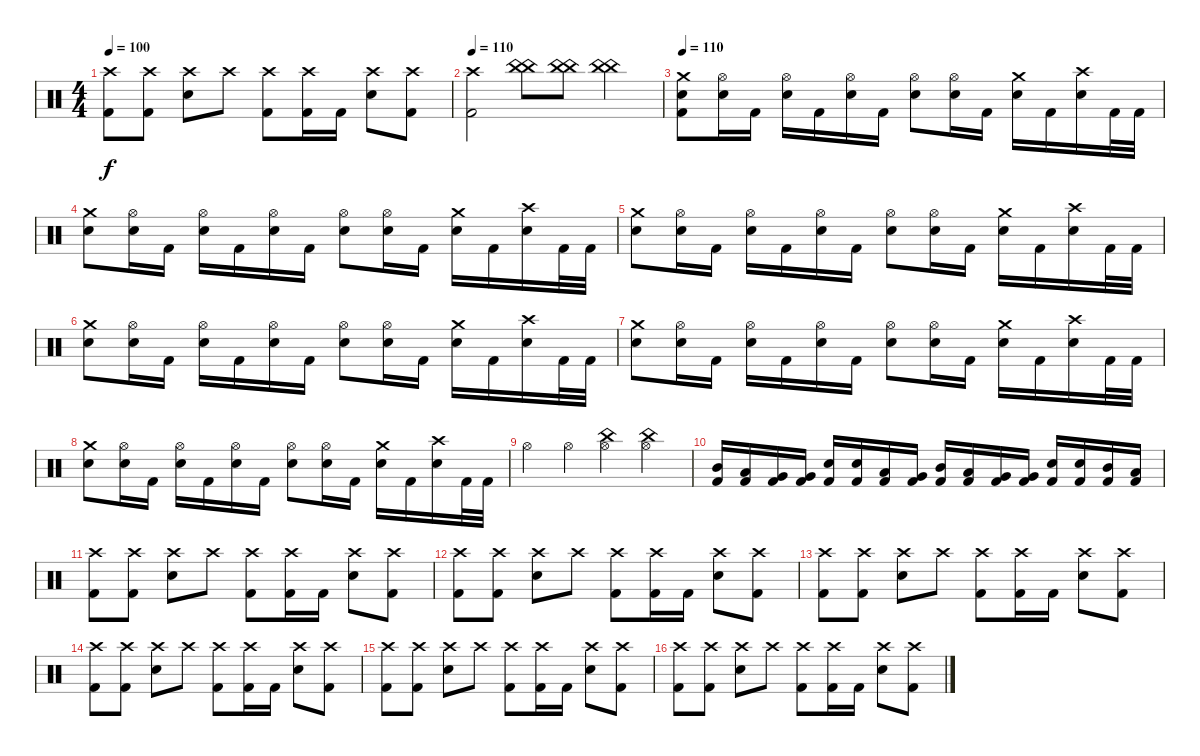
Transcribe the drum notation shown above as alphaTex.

\track "" {instrument percussion}
\staff {score}
\articulation defaults
\ts (4 4)
\tempo 100
\clef neutral
\ks c
("Crash high (hit)" "Kick (hit) 2").8{dy f} ("Crash high (hit)" "Kick (hit) 2").8 ("Crash high (hit)" "Electric Snare (hit)").8 "Crash high (hit)".8 ("Crash high (hit)" "Kick (hit) 2").8 ("Crash high (hit)" "Kick (hit) 2").16 "Kick (hit) 2".16 ("Crash high (hit)" "Electric Snare (hit)").8 ("Crash high (hit)" "Kick (hit) 2").8 |
\tempo 110
("Crash high (hit)" "Kick (hit) 2").2 ("China (hit)" "China (hit)").8 ("China (hit)" "China (hit)").8 ("China (hit)" "China (hit)").4 |
\tempo 110
("Crash medium (hit)" "Electric Snare (hit)" "Kick (hit) 2").8 ("Hi-Hat (open)" "Electric Snare (hit)").16 "Kick (hit) 2".16 ("Hi-Hat (open)" "Electric Snare (hit)").16 "Kick (hit) 2".16 ("Hi-Hat (open)" "Electric Snare (hit)").16 "Kick (hit) 2".16 ("Hi-Hat (open)" "Electric Snare (hit)").8 ("Hi-Hat (open)" "Electric Snare (hit)").16 "Kick (hit) 2".16 ("Crash medium (hit)" "Electric Snare (hit)").16 "Kick (hit) 2".16 ("Crash high (hit)" "Electric Snare (hit)").16 "Kick (hit) 2".32 "Kick (hit) 2".32 |
("Crash medium (hit)" "Electric Snare (hit)").8 ("Hi-Hat (open)" "Electric Snare (hit)").16 "Kick (hit) 2".16 ("Hi-Hat (open)" "Electric Snare (hit)").16 "Kick (hit) 2".16 ("Hi-Hat (open)" "Electric Snare (hit)").16 "Kick (hit) 2".16 ("Hi-Hat (open)" "Electric Snare (hit)").8 ("Hi-Hat (open)" "Electric Snare (hit)").16 "Kick (hit) 2".16 ("Crash medium (hit)" "Electric Snare (hit)").16 "Kick (hit) 2".16 ("Crash high (hit)" "Electric Snare (hit)").16 "Kick (hit) 2".32 "Kick (hit) 2".32 |
("Crash medium (hit)" "Electric Snare (hit)").8 ("Hi-Hat (open)" "Electric Snare (hit)").16 "Kick (hit) 2".16 ("Hi-Hat (open)" "Electric Snare (hit)").16 "Kick (hit) 2".16 ("Hi-Hat (open)" "Electric Snare (hit)").16 "Kick (hit) 2".16 ("Hi-Hat (open)" "Electric Snare (hit)").8 ("Hi-Hat (open)" "Electric Snare (hit)").16 "Kick (hit) 2".16 ("Crash medium (hit)" "Electric Snare (hit)").16 "Kick (hit) 2".16 ("Crash high (hit)" "Electric Snare (hit)").16 "Kick (hit) 2".32 "Kick (hit) 2".32 |
("Crash medium (hit)" "Electric Snare (hit)").8 ("Hi-Hat (open)" "Electric Snare (hit)").16 "Kick (hit) 2".16 ("Hi-Hat (open)" "Electric Snare (hit)").16 "Kick (hit) 2".16 ("Hi-Hat (open)" "Electric Snare (hit)").16 "Kick (hit) 2".16 ("Hi-Hat (open)" "Electric Snare (hit)").8 ("Hi-Hat (open)" "Electric Snare (hit)").16 "Kick (hit) 2".16 ("Crash medium (hit)" "Electric Snare (hit)").16 "Kick (hit) 2".16 ("Crash high (hit)" "Electric Snare (hit)").16 "Kick (hit) 2".32 "Kick (hit) 2".32 |
("Crash medium (hit)" "Electric Snare (hit)").8 ("Hi-Hat (open)" "Electric Snare (hit)").16 "Kick (hit) 2".16 ("Hi-Hat (open)" "Electric Snare (hit)").16 "Kick (hit) 2".16 ("Hi-Hat (open)" "Electric Snare (hit)").16 "Kick (hit) 2".16 ("Hi-Hat (open)" "Electric Snare (hit)").8 ("Hi-Hat (open)" "Electric Snare (hit)").16 "Kick (hit) 2".16 ("Crash medium (hit)" "Electric Snare (hit)").16 "Kick (hit) 2".16 ("Crash high (hit)" "Electric Snare (hit)").16 "Kick (hit) 2".32 "Kick (hit) 2".32 |
("Crash medium (hit)" "Electric Snare (hit)").8 ("Hi-Hat (open)" "Electric Snare (hit)").16 "Kick (hit) 2".16 ("Hi-Hat (open)" "Electric Snare (hit)").16 "Kick (hit) 2".16 ("Hi-Hat (open)" "Electric Snare (hit)").16 "Kick (hit) 2".16 ("Hi-Hat (open)" "Electric Snare (hit)").8 ("Hi-Hat (open)" "Electric Snare (hit)").16 "Kick (hit) 2".16 ("Crash medium (hit)" "Electric Snare (hit)").16 "Kick (hit) 2".16 ("Crash high (hit)" "Electric Snare (hit)").16 "Kick (hit) 2".32 "Kick (hit) 2".32 |
"Hi-Hat (open)".4 "Hi-Hat (open)".4 ("Hi-Hat (open)" "China (hit)").4 ("Hi-Hat (open)" "China (hit)").4 |
("Kick (hit) 2" "Mid Tom (hit)").16 ("Kick (hit) 2" "Low Tom (hit)").16 ("Kick (hit) 2" "Very Low Tom (hit)").16 ("Kick (hit) 2" "Very Low Tom (hit)").16 ("Kick (hit) 2" "Electric Snare (hit)").16 ("Kick (hit) 2" "Electric Snare (hit)").16 ("Kick (hit) 2" "Low Tom (hit)").16 ("Kick (hit) 2" "Very Low Tom (hit)").16 ("Kick (hit) 2" "Mid Tom (hit)").16 ("Kick (hit) 2" "Low Tom (hit)").16 ("Kick (hit) 2" "Very Low Tom (hit)").16 ("Kick (hit) 2" "Very Low Tom (hit)").16 ("Kick (hit) 2" "Electric Snare (hit)").16 ("Kick (hit) 2" "Electric Snare (hit)").16 ("Kick (hit) 2" "Mid Tom (hit)").16 ("Kick (hit) 2" "Low Tom (hit)").16 |
("Crash high (hit)" "Kick (hit) 2").8 ("Crash high (hit)" "Kick (hit) 2").8 ("Crash high (hit)" "Electric Snare (hit)").8 "Crash high (hit)".8 ("Crash high (hit)" "Kick (hit) 2").8 ("Crash high (hit)" "Kick (hit) 2").16 "Kick (hit) 2".16 ("Crash high (hit)" "Electric Snare (hit)").8 ("Crash high (hit)" "Kick (hit) 2").8 |
("Crash high (hit)" "Kick (hit) 2").8 ("Crash high (hit)" "Kick (hit) 2").8 ("Crash high (hit)" "Electric Snare (hit)").8 "Crash high (hit)".8 ("Crash high (hit)" "Kick (hit) 2").8 ("Crash high (hit)" "Kick (hit) 2").16 "Kick (hit) 2".16 ("Crash high (hit)" "Electric Snare (hit)").8 ("Crash high (hit)" "Kick (hit) 2").8 |
("Crash high (hit)" "Kick (hit) 2").8 ("Crash high (hit)" "Kick (hit) 2").8 ("Crash high (hit)" "Electric Snare (hit)").8 "Crash high (hit)".8 ("Crash high (hit)" "Kick (hit) 2").8 ("Crash high (hit)" "Kick (hit) 2").16 "Kick (hit) 2".16 ("Crash high (hit)" "Electric Snare (hit)").8 ("Crash high (hit)" "Kick (hit) 2").8 |
("Crash high (hit)" "Kick (hit) 2").8 ("Crash high (hit)" "Kick (hit) 2").8 ("Crash high (hit)" "Electric Snare (hit)").8 "Crash high (hit)".8 ("Crash high (hit)" "Kick (hit) 2").8 ("Crash high (hit)" "Kick (hit) 2").16 "Kick (hit) 2".16 ("Crash high (hit)" "Electric Snare (hit)").8 ("Crash high (hit)" "Kick (hit) 2").8 |
("Crash high (hit)" "Kick (hit) 2").8 ("Crash high (hit)" "Kick (hit) 2").8 ("Crash high (hit)" "Electric Snare (hit)").8 "Crash high (hit)".8 ("Crash high (hit)" "Kick (hit) 2").8 ("Crash high (hit)" "Kick (hit) 2").16 "Kick (hit) 2".16 ("Crash high (hit)" "Electric Snare (hit)").8 ("Crash high (hit)" "Kick (hit) 2").8 |
("Crash high (hit)" "Kick (hit) 2").8 ("Crash high (hit)" "Kick (hit) 2").8 ("Crash high (hit)" "Electric Snare (hit)").8 "Crash high (hit)".8 ("Crash high (hit)" "Kick (hit) 2").8 ("Crash high (hit)" "Kick (hit) 2").16 "Kick (hit) 2".16 ("Crash high (hit)" "Electric Snare (hit)").8 ("Crash high (hit)" "Kick (hit) 2").8
